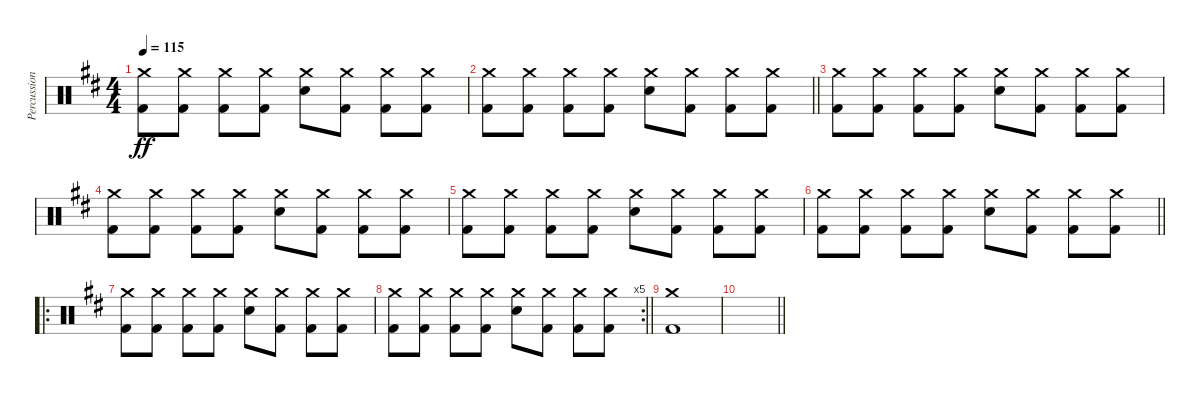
\track ("Percussion" "Percussion") {instrument percussion}
\staff {score}
\articulation defaults
\ts (4 4)
\tempo 115
\clef neutral
\ks bminor
("Crash medium (hit)" "Kick (hit) 2").8{dy ff} ("Crash medium (hit)" "Kick (hit) 2").8 ("Crash medium (hit)" "Kick (hit) 2").8 ("Crash medium (hit)" "Kick (hit) 2").8 ("Crash medium (hit)" "Snare (hit) 2").8 ("Crash medium (hit)" "Kick (hit) 2").8 ("Crash medium (hit)" "Kick (hit) 2").8 ("Crash medium (hit)" "Kick (hit) 2").8 |
\barLineRight lightlight
("Crash medium (hit)" "Kick (hit) 2").8 ("Crash medium (hit)" "Kick (hit) 2").8 ("Crash medium (hit)" "Kick (hit) 2").8 ("Crash medium (hit)" "Kick (hit) 2").8 ("Crash medium (hit)" "Snare (hit) 2").8 ("Crash medium (hit)" "Kick (hit) 2").8 ("Crash medium (hit)" "Kick (hit) 2").8 ("Crash medium (hit)" "Kick (hit) 2").8 |
\section ("" "")
("Crash medium (hit)" "Kick (hit) 2").8 ("Crash medium (hit)" "Kick (hit) 2").8 ("Crash medium (hit)" "Kick (hit) 2").8 ("Crash medium (hit)" "Kick (hit) 2").8 ("Crash medium (hit)" "Snare (hit) 2").8 ("Crash medium (hit)" "Kick (hit) 2").8 ("Crash medium (hit)" "Kick (hit) 2").8 ("Crash medium (hit)" "Kick (hit) 2").8 |
("Crash medium (hit)" "Kick (hit) 2").8 ("Crash medium (hit)" "Kick (hit) 2").8 ("Crash medium (hit)" "Kick (hit) 2").8 ("Crash medium (hit)" "Kick (hit) 2").8 ("Crash medium (hit)" "Snare (hit) 2").8 ("Crash medium (hit)" "Kick (hit) 2").8 ("Crash medium (hit)" "Kick (hit) 2").8 ("Crash medium (hit)" "Kick (hit) 2").8 |
("Crash medium (hit)" "Kick (hit) 2").8 ("Crash medium (hit)" "Kick (hit) 2").8 ("Crash medium (hit)" "Kick (hit) 2").8 ("Crash medium (hit)" "Kick (hit) 2").8 ("Crash medium (hit)" "Snare (hit) 2").8 ("Crash medium (hit)" "Kick (hit) 2").8 ("Crash medium (hit)" "Kick (hit) 2").8 ("Crash medium (hit)" "Kick (hit) 2").8 |
\barLineRight lightlight
("Crash medium (hit)" "Kick (hit) 2").8 ("Crash medium (hit)" "Kick (hit) 2").8 ("Crash medium (hit)" "Kick (hit) 2").8 ("Crash medium (hit)" "Kick (hit) 2").8 ("Crash medium (hit)" "Snare (hit) 2").8 ("Crash medium (hit)" "Kick (hit) 2").8 ("Crash medium (hit)" "Kick (hit) 2").8 ("Crash medium (hit)" "Kick (hit) 2").8 |
\ro
\section ("" "")
("Crash medium (hit)" "Kick (hit) 2").8 ("Crash medium (hit)" "Kick (hit) 2").8 ("Crash medium (hit)" "Kick (hit) 2").8 ("Crash medium (hit)" "Kick (hit) 2").8 ("Crash medium (hit)" "Snare (hit) 2").8 ("Crash medium (hit)" "Kick (hit) 2").8 ("Crash medium (hit)" "Kick (hit) 2").8 ("Crash medium (hit)" "Kick (hit) 2").8 |
\rc 5
\barLineRight lightlight
("Crash medium (hit)" "Kick (hit) 2").8 ("Crash medium (hit)" "Kick (hit) 2").8 ("Crash medium (hit)" "Kick (hit) 2").8 ("Crash medium (hit)" "Kick (hit) 2").8 ("Crash medium (hit)" "Snare (hit) 2").8 ("Crash medium (hit)" "Kick (hit) 2").8 ("Crash medium (hit)" "Kick (hit) 2").8 ("Crash medium (hit)" "Kick (hit) 2").8 |
\section ("" "")
("Crash medium (hit)" "Kick (hit) 2").1 |
\barLineRight lightlight
